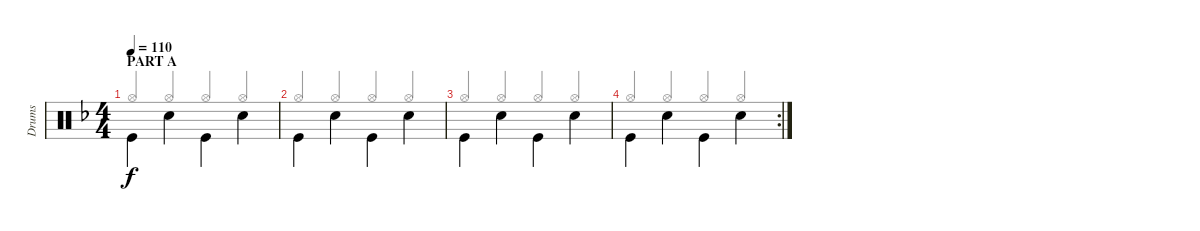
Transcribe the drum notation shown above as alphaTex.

\track ("Drums" "Drums") {instrument percussion}
\staff {score}
\articulation defaults
\voice
\ts (4 4)
\section ("" "PART A")
\tempo 110
\clef neutral
\ks f "Kick (hit)".4{dy f beam Down} "Snare (hit) 2".4{beam Down} "Kick (hit)".4{beam Down} "Snare (hit) 2".4{beam Down}
|
"Kick (hit)".4{beam Down} "Snare (hit) 2".4{beam Down} "Kick (hit)".4{beam Down} "Snare (hit) 2".4{beam Down} |
"Kick (hit)".4{beam Down} "Snare (hit) 2".4{beam Down} "Kick (hit)".4{beam Down} "Snare (hit) 2".4{beam Down} |
\rc 2 "Kick (hit)".4{beam Down} "Snare (hit) 2".4{beam Down} "Kick (hit)".4{beam Down} "Snare (hit) 2".4{beam Down}
\voice
\clef neutral
\ottava regular
\simile none
\ks f "Hi-Hat (open)".4{dy f beam Up} "Hi-Hat (open)".4{beam Up} "Hi-Hat (open)".4{beam Up} "Hi-Hat (open)".4{beam Up}
|
"Hi-Hat (open)".4{beam Up} "Hi-Hat (open)".4{beam Up} "Hi-Hat (open)".4{beam Up} "Hi-Hat (open)".4{beam Up} |
"Hi-Hat (open)".4{beam Up} "Hi-Hat (open)".4{beam Up} "Hi-Hat (open)".4{beam Up} "Hi-Hat (open)".4{beam Up} |
"Hi-Hat (open)".4{beam Up} "Hi-Hat (open)".4{beam Up} "Hi-Hat (open)".4{beam Up} "Hi-Hat (open)".4{beam Up}
